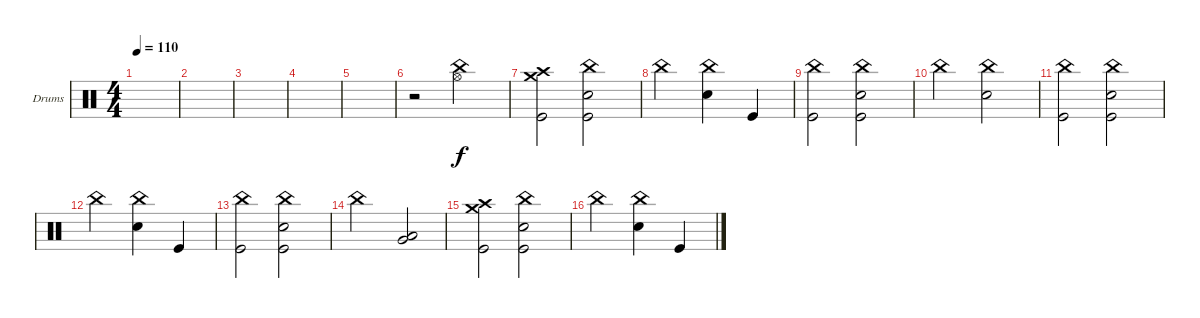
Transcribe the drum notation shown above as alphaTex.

\bracketExtendMode groupsimilarinstruments
\firstSystemTrackNameOrientation horizontal
\otherSystemsTrackNameOrientation horizontal
\track ("Drumkit" "Drums") {instrument percussion}
\staff {score}
\articulation defaults
\ts (4 4)
\tempo 110
\clef neutral
\ks c
|
|
|
|
|
r.2 ("China (hit)" "Hi-Hat (open)").2 |
("Kick (hit)" "Crash medium (hit)" "Crash high (hit)").2 ("Kick (hit)" "China (hit)" "Snare (hit) 2").2 |
"China (hit)".2 ("China (hit)" "Snare (hit) 2").4 "Kick (hit)".4 |
("Kick (hit)" "China (hit)").2 ("China (hit)" "Kick (hit)" "Snare (hit) 2").2 |
"China (hit)".2 ("China (hit)" "Snare (hit) 2").2 |
("Kick (hit)" "China (hit)").2 ("Kick (hit)" "China (hit)" "Snare (hit) 2").2 |
"China (hit)".2 ("China (hit)" "Snare (hit) 2").4 "Kick (hit)".4 |
("Kick (hit)" "China (hit)").2 ("China (hit)" "Kick (hit)" "Snare (hit) 2").2 |
"China (hit)".2 ("Very Low Tom (hit)" "Low Tom (hit)").2 |
("Kick (hit)" "Crash medium (hit)" "Crash high (hit)").2 ("Kick (hit)" "China (hit)" "Snare (hit) 2").2 |
"China (hit)".2 ("China (hit)" "Snare (hit) 2").4 "Kick (hit)".4
